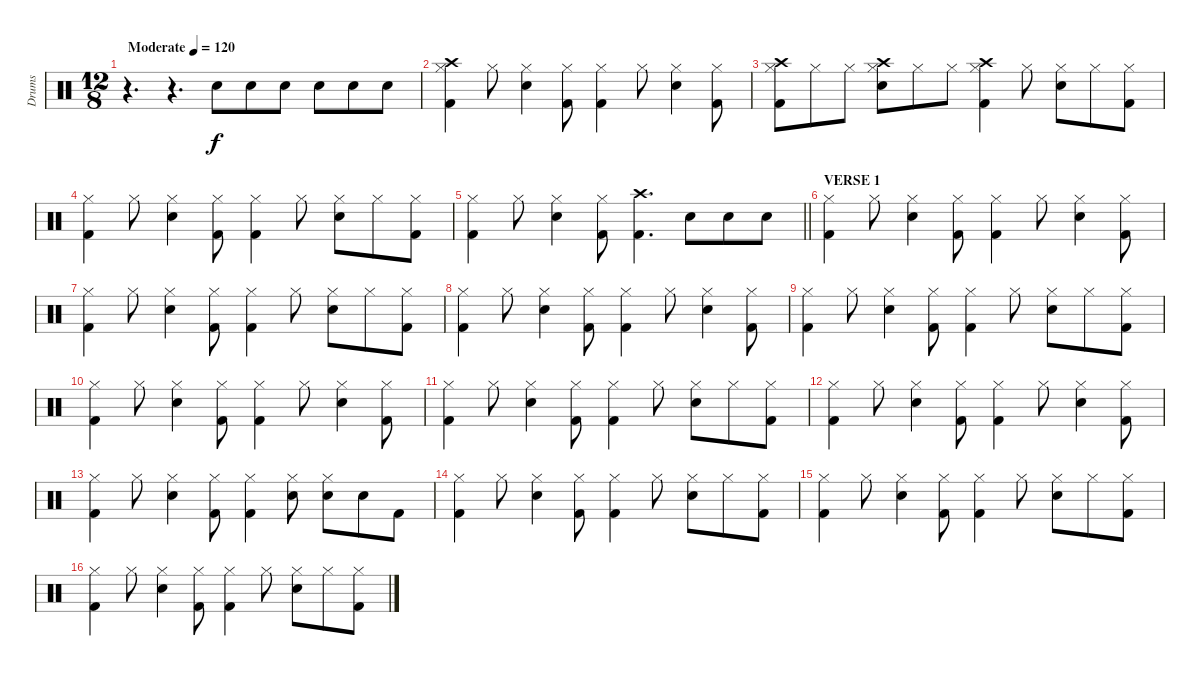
\track ("Drums" "Drums") {instrument percussion}
\staff {score}
\articulation defaults
\ts (12 8)
\tempo (120 "Moderate")
\clef neutral
\ks c
r.4{d dy f} r.4{d} "Electric Snare (hit)".8 "Electric Snare (hit)".8 "Electric Snare (hit)".8 "Electric Snare (hit)".8 "Electric Snare (hit)".8 "Electric Snare (hit)".8 |
("Crash high (hit)" "Hi-Hat (closed)" "Kick (hit) 2").4 "Hi-Hat (closed)".8 ("Hi-Hat (closed)" "Electric Snare (hit)").4 ("Hi-Hat (closed)" "Kick (hit) 2").8 ("Hi-Hat (closed)" "Kick (hit) 2").4 "Hi-Hat (closed)".8 ("Hi-Hat (closed)" "Electric Snare (hit)").4 ("Hi-Hat (closed)" "Kick (hit) 2").8 |
("Crash high (hit)" "Hi-Hat (closed)" "Kick (hit) 2").8 "Hi-Hat (closed)".8 "Hi-Hat (closed)".8 ("Crash high (hit)" "Hi-Hat (closed)" "Electric Snare (hit)").8 "Hi-Hat (closed)".8 "Hi-Hat (closed)".8 ("Crash high (hit)" "Hi-Hat (closed)" "Kick (hit) 2").4 "Hi-Hat (closed)".8 ("Hi-Hat (closed)" "Electric Snare (hit)").8 "Hi-Hat (closed)".8 ("Hi-Hat (closed)" "Kick (hit) 2").8 |
("Hi-Hat (closed)" "Kick (hit) 2").4 "Hi-Hat (closed)".8 ("Hi-Hat (closed)" "Electric Snare (hit)").4 ("Hi-Hat (closed)" "Kick (hit) 2").8 ("Hi-Hat (closed)" "Kick (hit) 2").4 "Hi-Hat (closed)".8 ("Hi-Hat (closed)" "Electric Snare (hit)").8 "Hi-Hat (closed)".8 ("Hi-Hat (closed)" "Kick (hit) 2").8 |
\barLineRight lightlight
("Hi-Hat (closed)" "Kick (hit) 2").4 "Hi-Hat (closed)".8 ("Hi-Hat (closed)" "Electric Snare (hit)").4 ("Hi-Hat (closed)" "Kick (hit) 2").8 ("Crash high (hit)" "Kick (hit) 2").4{d} "Electric Snare (hit)".8 "Electric Snare (hit)".8 "Electric Snare (hit)".8 |
\section ("" "VERSE 1")
("Hi-Hat (closed)" "Kick (hit) 2").4 "Hi-Hat (closed)".8 ("Hi-Hat (closed)" "Electric Snare (hit)").4 ("Hi-Hat (closed)" "Kick (hit) 2").8 ("Hi-Hat (closed)" "Kick (hit) 2").4 "Hi-Hat (closed)".8 ("Hi-Hat (closed)" "Electric Snare (hit)").4 ("Hi-Hat (closed)" "Kick (hit) 2").8 |
("Hi-Hat (closed)" "Kick (hit) 2").4 "Hi-Hat (closed)".8 ("Hi-Hat (closed)" "Electric Snare (hit)").4 ("Hi-Hat (closed)" "Kick (hit) 2").8 ("Hi-Hat (closed)" "Kick (hit) 2").4 "Hi-Hat (closed)".8 ("Hi-Hat (closed)" "Electric Snare (hit)").8 "Hi-Hat (closed)".8 ("Hi-Hat (closed)" "Kick (hit) 2").8 |
("Hi-Hat (closed)" "Kick (hit) 2").4 "Hi-Hat (closed)".8 ("Hi-Hat (closed)" "Electric Snare (hit)").4 ("Hi-Hat (closed)" "Kick (hit) 2").8 ("Hi-Hat (closed)" "Kick (hit) 2").4 "Hi-Hat (closed)".8 ("Hi-Hat (closed)" "Electric Snare (hit)").4 ("Hi-Hat (closed)" "Kick (hit) 2").8 |
("Hi-Hat (closed)" "Kick (hit) 2").4 "Hi-Hat (closed)".8 ("Hi-Hat (closed)" "Electric Snare (hit)").4 ("Hi-Hat (closed)" "Kick (hit) 2").8 ("Hi-Hat (closed)" "Kick (hit) 2").4 "Hi-Hat (closed)".8 ("Hi-Hat (closed)" "Electric Snare (hit)").8 "Hi-Hat (closed)".8 ("Hi-Hat (closed)" "Kick (hit) 2").8 |
("Hi-Hat (closed)" "Kick (hit) 2").4 "Hi-Hat (closed)".8 ("Hi-Hat (closed)" "Electric Snare (hit)").4 ("Hi-Hat (closed)" "Kick (hit) 2").8 ("Hi-Hat (closed)" "Kick (hit) 2").4 "Hi-Hat (closed)".8 ("Hi-Hat (closed)" "Electric Snare (hit)").4 ("Hi-Hat (closed)" "Kick (hit) 2").8 |
("Hi-Hat (closed)" "Kick (hit) 2").4 "Hi-Hat (closed)".8 ("Hi-Hat (closed)" "Electric Snare (hit)").4 ("Hi-Hat (closed)" "Kick (hit) 2").8 ("Hi-Hat (closed)" "Kick (hit) 2").4 "Hi-Hat (closed)".8 ("Hi-Hat (closed)" "Electric Snare (hit)").8 "Hi-Hat (closed)".8 ("Hi-Hat (closed)" "Kick (hit) 2").8 |
("Hi-Hat (closed)" "Kick (hit) 2").4 "Hi-Hat (closed)".8 ("Hi-Hat (closed)" "Electric Snare (hit)").4 ("Hi-Hat (closed)" "Kick (hit) 2").8 ("Hi-Hat (closed)" "Kick (hit) 2").4 "Hi-Hat (closed)".8 ("Hi-Hat (closed)" "Electric Snare (hit)").4 ("Hi-Hat (closed)" "Kick (hit) 2").8 |
("Hi-Hat (closed)" "Kick (hit) 2").4 "Hi-Hat (closed)".8 ("Hi-Hat (closed)" "Electric Snare (hit)").4 ("Hi-Hat (closed)" "Kick (hit) 2").8 ("Hi-Hat (closed)" "Kick (hit) 2").4 ("Hi-Hat (closed)" "Electric Snare (hit)").8 ("Hi-Hat (closed)" "Electric Snare (hit)").8 "Electric Snare (hit)".8 "Kick (hit) 2".8 |
("Hi-Hat (closed)" "Kick (hit) 2").4 "Hi-Hat (closed)".8 ("Hi-Hat (closed)" "Electric Snare (hit)").4 ("Hi-Hat (closed)" "Kick (hit) 2").8 ("Hi-Hat (closed)" "Kick (hit) 2").4 "Hi-Hat (closed)".8 ("Hi-Hat (closed)" "Electric Snare (hit)").8 "Hi-Hat (closed)".8 ("Hi-Hat (closed)" "Kick (hit) 2").8 |
("Hi-Hat (closed)" "Kick (hit) 2").4 "Hi-Hat (closed)".8 ("Hi-Hat (closed)" "Electric Snare (hit)").4 ("Hi-Hat (closed)" "Kick (hit) 2").8 ("Hi-Hat (closed)" "Kick (hit) 2").4 "Hi-Hat (closed)".8 ("Hi-Hat (closed)" "Electric Snare (hit)").8 "Hi-Hat (closed)".8 ("Hi-Hat (closed)" "Kick (hit) 2").8 |
("Hi-Hat (closed)" "Kick (hit) 2").4 "Hi-Hat (closed)".8 ("Hi-Hat (closed)" "Electric Snare (hit)").4 ("Hi-Hat (closed)" "Kick (hit) 2").8 ("Hi-Hat (closed)" "Kick (hit) 2").4 "Hi-Hat (closed)".8 ("Hi-Hat (closed)" "Electric Snare (hit)").8 "Hi-Hat (closed)".8 ("Hi-Hat (closed)" "Kick (hit) 2").8
